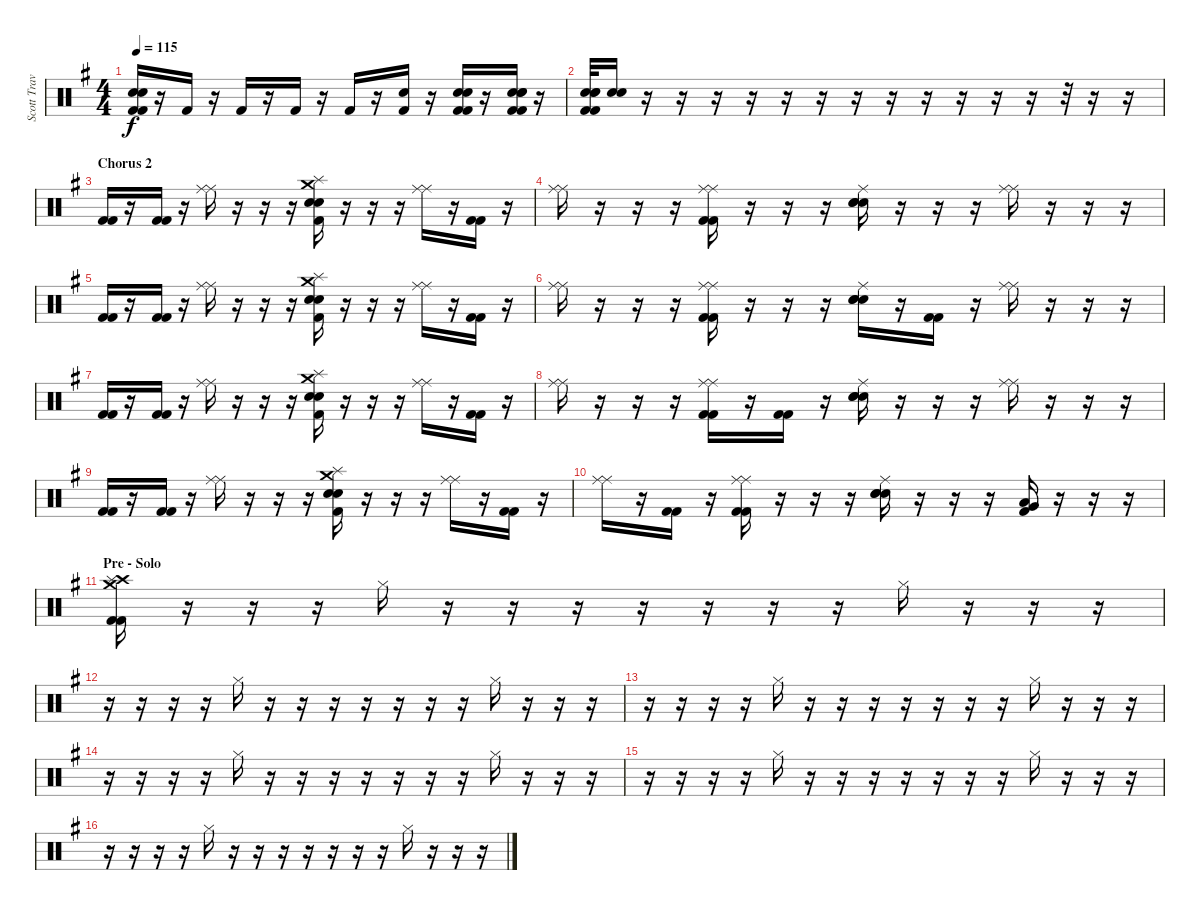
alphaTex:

\track ("Scott Travis" "Scott Trav") {instrument percussion}
\staff {score}
\articulation defaults
\ts (4 4)
\tempo 115
\clef neutral
\ks eminor
("Snare (hit) 2" "Snare (hit) 2" "Kick (hit) 2" "Kick (hit) 2").16{dy f} r.16 "Kick (hit) 2".16 r.16 "Kick (hit) 2".16 r.16 "Kick (hit) 2".16 r.16 "Kick (hit) 2".16 r.16 ("Snare (hit) 2" "Kick (hit) 2").16 r.16 ("Snare (hit) 2" "Snare (hit) 2" "Kick (hit) 2" "Kick (hit) 2").16 r.16 ("Snare (hit) 2" "Snare (hit) 2" "Snare (hit) 2" "Kick (hit) 2" "Kick (hit) 2").16 r.16 |
("Snare (hit) 2" "Snare (hit) 2" "Snare (hit) 2" "Kick (hit) 2" "Kick (hit) 2").32 ("Snare (hit) 2" "Snare (hit) 2").16 r.16 r.16 r.16 r.16 r.16 r.16 r.16 r.16 r.16 r.16 r.16 r.16 r.32 r.16 r.16 |
\section ("" "Chorus 2")
("Kick (hit) 2" "Kick (hit) 2").16 r.16 ("Kick (hit) 2" "Kick (hit) 2").16 r.16 ("Ride (middle)" "Ride (middle)").16 r.16 r.16 r.16 ("Crash medium (hit)" "Splash (hit)" "Snare (hit) 2" "Snare (hit) 2" "Kick (hit) 2").16 r.16 r.16 r.16 ("Ride (middle)" "Ride (middle)").16 r.16 ("Kick (hit) 2" "Kick (hit) 2").16 r.16 |
("Ride (middle)" "Ride (middle)").16 r.16 r.16 r.16 ("Ride (middle)" "Ride (middle)" "Kick (hit) 2" "Kick (hit) 2").16 r.16 r.16 r.16 ("Ride (middle)" "Snare (hit) 2" "Snare (hit) 2" "Snare (hit) 2").16 r.16 r.16 r.16 ("Ride (middle)" "Ride (middle)").16 r.16 r.16 r.16 |
("Kick (hit) 2" "Kick (hit) 2").16 r.16 ("Kick (hit) 2" "Kick (hit) 2").16 r.16 ("Ride (middle)" "Ride (middle)").16 r.16 r.16 r.16 ("Crash medium (hit)" "Splash (hit)" "Snare (hit) 2" "Snare (hit) 2" "Kick (hit) 2").16 r.16 r.16 r.16 ("Ride (middle)" "Ride (middle)").16 r.16 ("Kick (hit) 2" "Kick (hit) 2").16 r.16 |
("Ride (middle)" "Ride (middle)").16 r.16 r.16 r.16 ("Ride (middle)" "Ride (middle)" "Kick (hit) 2" "Kick (hit) 2").16 r.16 r.16 r.16 ("Ride (middle)" "Snare (hit) 2" "Snare (hit) 2" "Snare (hit) 2").16 r.16 ("Kick (hit) 2" "Kick (hit) 2").16 r.16 ("Ride (middle)" "Ride (middle)").16 r.16 r.16 r.16 |
("Kick (hit) 2" "Kick (hit) 2").16 r.16 ("Kick (hit) 2" "Kick (hit) 2").16 r.16 ("Ride (middle)" "Ride (middle)").16 r.16 r.16 r.16 ("Crash medium (hit)" "Splash (hit)" "Snare (hit) 2" "Snare (hit) 2" "Kick (hit) 2").16 r.16 r.16 r.16 ("Ride (middle)" "Ride (middle)").16 r.16 ("Kick (hit) 2" "Kick (hit) 2").16 r.16 |
("Ride (middle)" "Ride (middle)").16 r.16 r.16 r.16 ("Ride (middle)" "Ride (middle)" "Kick (hit) 2" "Kick (hit) 2").16 r.16 ("Kick (hit) 2" "Kick (hit) 2").16 r.16 ("Ride (middle)" "Snare (hit) 2" "Snare (hit) 2" "Snare (hit) 2").16 r.16 r.16 r.16 ("Ride (middle)" "Ride (middle)").16 r.16 r.16 r.16 |
("Kick (hit) 2" "Kick (hit) 2").16 r.16 ("Kick (hit) 2" "Kick (hit) 2").16 r.16 ("Ride (middle)" "Ride (middle)").16 r.16 r.16 r.16 ("Crash medium (hit)" "Splash (hit)" "Snare (hit) 2" "Snare (hit) 2" "Kick (hit) 2").16 r.16 r.16 r.16 ("Ride (middle)" "Ride (middle)").16 r.16 ("Kick (hit) 2" "Kick (hit) 2").16 r.16 |
("Ride (middle)" "Ride (middle)").16 r.16 ("Kick (hit) 2" "Kick (hit) 2").16 r.16 ("Ride (middle)" "Ride (middle)" "Kick (hit) 2" "Kick (hit) 2").16 r.16 r.16 r.16 ("Ride (middle)" "Snare (hit) 2" "Snare (hit) 2" "Snare (hit) 2").16 r.16 r.16 r.16 ("Very Low Tom (hit)" "Low Floor Tom (hit)" "Kick (hit) 2").16 r.16 r.16 r.16 |
\section ("" "Pre - Solo")
("Crash medium (hit)" "Crash high (hit)" "Splash (hit)" "Kick (hit) 2" "Kick (hit) 2").16 r.16 r.16 r.16 "Hi-Hat (closed)".16 r.16 r.16 r.16 r.16 r.16 r.16 r.16 "Hi-Hat (closed)".16 r.16 r.16 r.16 |
r.16 r.16 r.16 r.16 "Hi-Hat (closed)".16 r.16 r.16 r.16 r.16 r.16 r.16 r.16 "Hi-Hat (closed)".16 r.16 r.16 r.16 |
r.16 r.16 r.16 r.16 "Hi-Hat (closed)".16 r.16 r.16 r.16 r.16 r.16 r.16 r.16 "Hi-Hat (closed)".16 r.16 r.16 r.16 |
r.16 r.16 r.16 r.16 "Hi-Hat (closed)".16 r.16 r.16 r.16 r.16 r.16 r.16 r.16 "Hi-Hat (closed)".16 r.16 r.16 r.16 |
r.16 r.16 r.16 r.16 "Hi-Hat (closed)".16 r.16 r.16 r.16 r.16 r.16 r.16 r.16 "Hi-Hat (closed)".16 r.16 r.16 r.16 |
r.16 r.16 r.16 r.16 "Hi-Hat (closed)".16 r.16 r.16 r.16 r.16 r.16 r.16 r.16 "Hi-Hat (closed)".16 r.16 r.16 r.16
